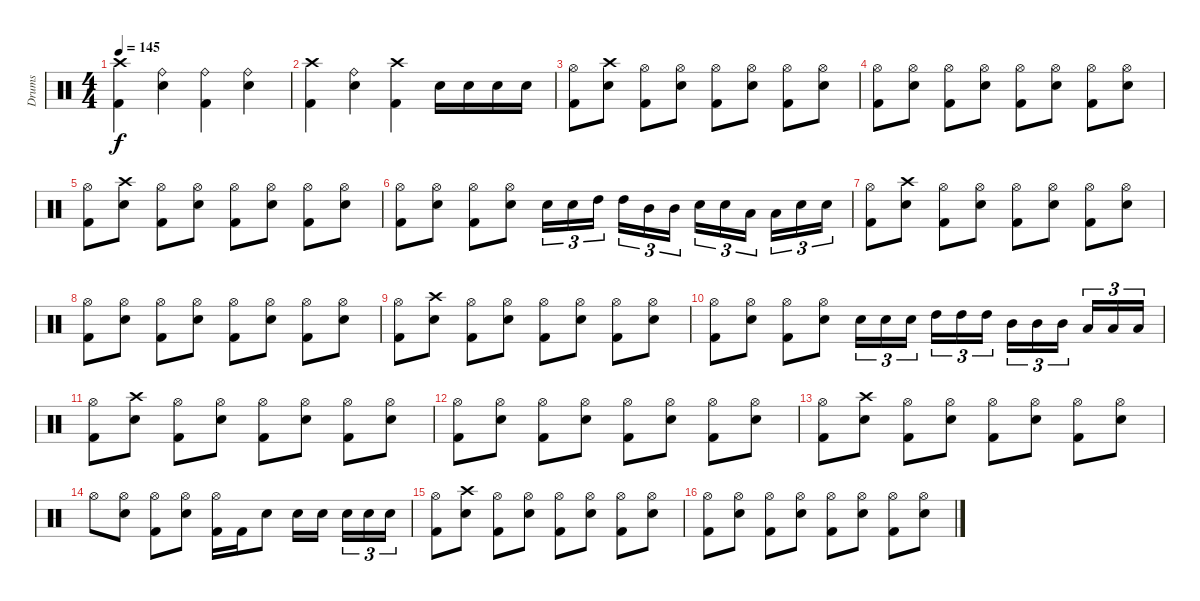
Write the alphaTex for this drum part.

\track ("Drums" "Drums") {instrument percussion}
\staff {score}
\articulation defaults
\ts (4 4)
\tempo 145
\clef neutral
\ks c
("Crash high (hit)" "Kick (hit) 2").4{dy f} ("Ride (bell)" "Snare (hit) 2").4 ("Ride (bell)" "Kick (hit) 2").4 ("Ride (bell)" "Snare (hit) 2").4 |
("Crash high (hit)" "Kick (hit) 2").4 ("Ride (bell)" "Snare (hit) 2").4 ("Crash high (hit)" "Kick (hit) 2").4 "Snare (hit) 2".16 "Snare (hit) 2".16 "Snare (hit) 2".16 "Snare (hit) 2".16 |
("Hi-Hat (open)" "Kick (hit) 2").8 ("Crash high (hit)" "Snare (hit) 2").8 ("Hi-Hat (open)" "Kick (hit) 2").8 ("Hi-Hat (open)" "Snare (hit) 2").8 ("Hi-Hat (open)" "Kick (hit) 2").8 ("Hi-Hat (open)" "Snare (hit) 2").8 ("Hi-Hat (open)" "Kick (hit) 2").8 ("Hi-Hat (open)" "Snare (hit) 2").8 |
("Hi-Hat (open)" "Kick (hit) 2").8 ("Hi-Hat (open)" "Snare (hit) 2").8 ("Hi-Hat (open)" "Kick (hit) 2").8 ("Hi-Hat (open)" "Snare (hit) 2").8 ("Hi-Hat (open)" "Kick (hit) 2").8 ("Hi-Hat (open)" "Snare (hit) 2").8 ("Hi-Hat (open)" "Kick (hit) 2").8 ("Hi-Hat (open)" "Snare (hit) 2").8 |
("Hi-Hat (open)" "Kick (hit) 2").8 ("Crash high (hit)" "Snare (hit) 2").8 ("Hi-Hat (open)" "Kick (hit) 2").8 ("Hi-Hat (open)" "Snare (hit) 2").8 ("Hi-Hat (open)" "Kick (hit) 2").8 ("Hi-Hat (open)" "Snare (hit) 2").8 ("Hi-Hat (open)" "Kick (hit) 2").8 ("Hi-Hat (open)" "Snare (hit) 2").8 |
("Hi-Hat (open)" "Kick (hit) 2").8 ("Hi-Hat (open)" "Snare (hit) 2").8 ("Hi-Hat (open)" "Kick (hit) 2").8 ("Hi-Hat (open)" "Snare (hit) 2").8 "Snare (hit) 2".16{tu (3 2)} "Snare (hit) 2".16{tu (3 2)} "High Tom (hit)".16{tu (3 2)} "High Tom (hit)".16{tu (3 2)} "Mid Tom (hit)".16{tu (3 2)} "Mid Tom (hit)".16{tu (3 2)} "Snare (hit) 2".16{tu (3 2)} "Snare (hit) 2".16{tu (3 2)} "Low Tom (hit)".16{tu (3 2)} "Low Tom (hit)".16{tu (3 2)} "Snare (hit) 2".16{tu (3 2)} "Snare (hit) 2".16{tu (3 2)} |
("Hi-Hat (open)" "Kick (hit) 2").8 ("Crash high (hit)" "Snare (hit) 2").8 ("Hi-Hat (open)" "Kick (hit) 2").8 ("Hi-Hat (open)" "Snare (hit) 2").8 ("Hi-Hat (open)" "Kick (hit) 2").8 ("Hi-Hat (open)" "Snare (hit) 2").8 ("Hi-Hat (open)" "Kick (hit) 2").8 ("Hi-Hat (open)" "Snare (hit) 2").8 |
("Hi-Hat (open)" "Kick (hit) 2").8 ("Hi-Hat (open)" "Snare (hit) 2").8 ("Hi-Hat (open)" "Kick (hit) 2").8 ("Hi-Hat (open)" "Snare (hit) 2").8 ("Hi-Hat (open)" "Kick (hit) 2").8 ("Hi-Hat (open)" "Snare (hit) 2").8 ("Hi-Hat (open)" "Kick (hit) 2").8 ("Hi-Hat (open)" "Snare (hit) 2").8 |
("Hi-Hat (open)" "Kick (hit) 2").8 ("Crash high (hit)" "Snare (hit) 2").8 ("Hi-Hat (open)" "Kick (hit) 2").8 ("Hi-Hat (open)" "Snare (hit) 2").8 ("Hi-Hat (open)" "Kick (hit) 2").8 ("Hi-Hat (open)" "Snare (hit) 2").8 ("Hi-Hat (open)" "Kick (hit) 2").8 ("Hi-Hat (open)" "Snare (hit) 2").8 |
("Hi-Hat (open)" "Kick (hit) 2").8 ("Hi-Hat (open)" "Snare (hit) 2").8 ("Hi-Hat (open)" "Kick (hit) 2").8 ("Hi-Hat (open)" "Snare (hit) 2").8 "Snare (hit) 2".16{tu (3 2)} "Snare (hit) 2".16{tu (3 2)} "Snare (hit) 2".16{tu (3 2)} "High Tom (hit)".16{tu (3 2)} "High Tom (hit)".16{tu (3 2)} "High Tom (hit)".16{tu (3 2)} "Mid Tom (hit)".16{tu (3 2)} "Mid Tom (hit)".16{tu (3 2)} "Mid Tom (hit)".16{tu (3 2)} "Low Tom (hit)".16{tu (3 2)} "Low Tom (hit)".16{tu (3 2)} "Low Tom (hit)".16{tu (3 2)} |
("Hi-Hat (open)" "Kick (hit) 2").8 ("Crash high (hit)" "Snare (hit) 2").8 ("Hi-Hat (open)" "Kick (hit) 2").8 ("Hi-Hat (open)" "Snare (hit) 2").8 ("Hi-Hat (open)" "Kick (hit) 2").8 ("Hi-Hat (open)" "Snare (hit) 2").8 ("Hi-Hat (open)" "Kick (hit) 2").8 ("Hi-Hat (open)" "Snare (hit) 2").8 |
("Hi-Hat (open)" "Kick (hit) 2").8 ("Hi-Hat (open)" "Snare (hit) 2").8 ("Hi-Hat (open)" "Kick (hit) 2").8 ("Hi-Hat (open)" "Snare (hit) 2").8 ("Hi-Hat (open)" "Kick (hit) 2").8 ("Hi-Hat (open)" "Snare (hit) 2").8 ("Hi-Hat (open)" "Kick (hit) 2").8 ("Hi-Hat (open)" "Snare (hit) 2").8 |
("Hi-Hat (open)" "Kick (hit) 2").8 ("Crash high (hit)" "Snare (hit) 2").8 ("Hi-Hat (open)" "Kick (hit) 2").8 ("Hi-Hat (open)" "Snare (hit) 2").8 ("Hi-Hat (open)" "Kick (hit) 2").8 ("Hi-Hat (open)" "Snare (hit) 2").8 ("Hi-Hat (open)" "Kick (hit) 2").8 ("Hi-Hat (open)" "Snare (hit) 2").8 |
"Hi-Hat (open)".8 ("Hi-Hat (open)" "Snare (hit) 2").8 ("Hi-Hat (open)" "Kick (hit) 2").8 ("Hi-Hat (open)" "Snare (hit) 2").8 ("Hi-Hat (open)" "Kick (hit) 2").16 "Kick (hit) 2".16 "Snare (hit) 2".8 "Snare (hit) 2".16 "Snare (hit) 2".16 "Snare (hit) 2".16{tu (3 2)} "Snare (hit) 2".16{tu (3 2)} "Snare (hit) 2".16{tu (3 2)} |
("Hi-Hat (open)" "Kick (hit) 2").8 ("Crash high (hit)" "Snare (hit) 2").8 ("Hi-Hat (open)" "Kick (hit) 2").8 ("Hi-Hat (open)" "Snare (hit) 2").8 ("Hi-Hat (open)" "Kick (hit) 2").8 ("Hi-Hat (open)" "Snare (hit) 2").8 ("Hi-Hat (open)" "Kick (hit) 2").8 ("Hi-Hat (open)" "Snare (hit) 2").8 |
("Hi-Hat (open)" "Kick (hit) 2").8 ("Hi-Hat (open)" "Snare (hit) 2").8 ("Hi-Hat (open)" "Kick (hit) 2").8 ("Hi-Hat (open)" "Snare (hit) 2").8 ("Hi-Hat (open)" "Kick (hit) 2").8 ("Hi-Hat (open)" "Snare (hit) 2").8 ("Hi-Hat (open)" "Kick (hit) 2").8 ("Hi-Hat (open)" "Snare (hit) 2").8
